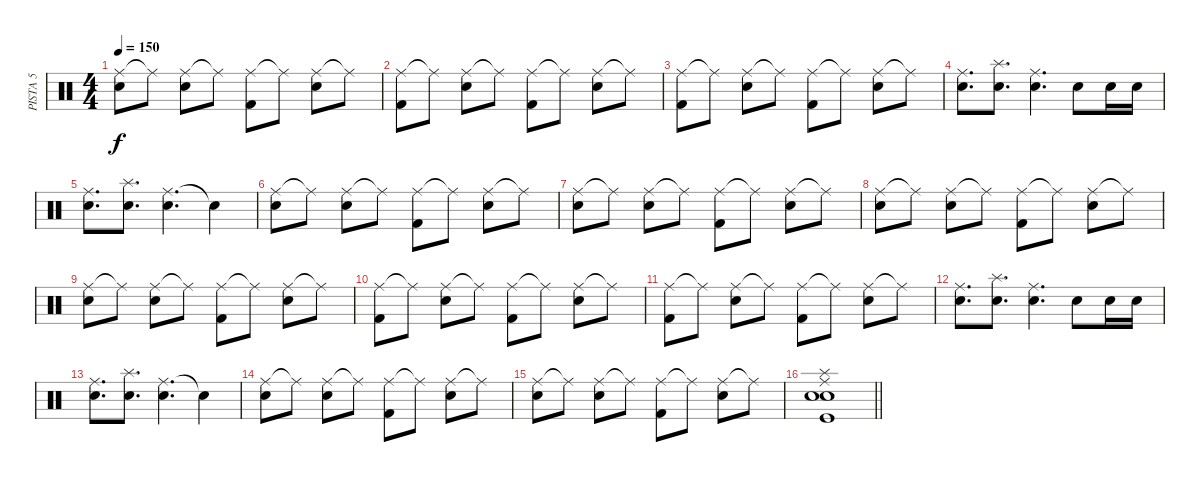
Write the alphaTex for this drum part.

\track ("PISTA 5" "PISTA 5") {instrument percussion}
\staff {score}
\articulation defaults
\ts (4 4)
\tempo 150
\clef neutral
\ks c
("Ride (middle)" "Snare (hit)").8{dy f} "Ride (middle)"{t}.8 ("Ride (middle)" "Electric Snare (hit)").8 "Ride (middle)"{t}.8 ("Ride (middle)" "Kick (hit) 2").8 "Ride (middle)"{t}.8 ("Ride (middle)" "Electric Snare (hit)").8 "Ride (middle)"{t}.8 |
("Ride (middle)" "Kick (hit) 2").8 "Ride (middle)"{t}.8 ("Ride (middle)" "Electric Snare (hit)").8 "Ride (middle)"{t}.8 ("Ride (middle)" "Kick (hit) 2").8 "Ride (middle)"{t}.8 ("Ride (middle)" "Electric Snare (hit)").8 "Ride (middle)"{t}.8 |
("Ride (middle)" "Kick (hit) 2").8 "Ride (middle)"{t}.8 ("Ride (middle)" "Electric Snare (hit)").8 "Ride (middle)"{t}.8 ("Ride (middle)" "Kick (hit) 2").8 "Ride (middle)"{t}.8 ("Ride (middle)" "Electric Snare (hit)").8 "Ride (middle)"{t}.8 |
("Ride (middle)" "Electric Snare (hit)").8{d} ("Splash (hit)" "Electric Snare (hit)").8{d} ("Ride (middle)" "Electric Snare (hit)").4{d} "Electric Snare (hit)".8 "Electric Snare (hit)".16 "Electric Snare (hit)".16 |
("Ride (middle)" "Electric Snare (hit)").8{d} ("Splash (hit)" "Electric Snare (hit)").8{d} ("Ride (middle)" "Electric Snare (hit)").4{d} "Snare (hit)"{t}.4 |
("Ride (middle)" "Snare (hit)").8 "Ride (middle)"{t}.8 ("Ride (middle)" "Electric Snare (hit)").8 "Ride (middle)"{t}.8 ("Ride (middle)" "Kick (hit) 2").8 "Ride (middle)"{t}.8 ("Ride (middle)" "Electric Snare (hit)").8 "Ride (middle)"{t}.8 |
("Ride (middle)" "Snare (hit)").8 "Ride (middle)"{t}.8 ("Ride (middle)" "Electric Snare (hit)").8 "Ride (middle)"{t}.8 ("Ride (middle)" "Kick (hit) 2").8 "Ride (middle)"{t}.8 ("Ride (middle)" "Electric Snare (hit)").8 "Ride (middle)"{t}.8 |
("Ride (middle)" "Snare (hit)").8 "Ride (middle)"{t}.8 ("Ride (middle)" "Electric Snare (hit)").8 "Ride (middle)"{t}.8 ("Ride (middle)" "Kick (hit) 2").8 "Ride (middle)"{t}.8 ("Ride (middle)" "Electric Snare (hit)").8 "Ride (middle)"{t}.8 |
("Ride (middle)" "Snare (hit)").8 "Ride (middle)"{t}.8 ("Ride (middle)" "Electric Snare (hit)").8 "Ride (middle)"{t}.8 ("Ride (middle)" "Kick (hit) 2").8 "Ride (middle)"{t}.8 ("Ride (middle)" "Electric Snare (hit)").8 "Ride (middle)"{t}.8 |
("Ride (middle)" "Kick (hit) 2").8 "Ride (middle)"{t}.8 ("Ride (middle)" "Electric Snare (hit)").8 "Ride (middle)"{t}.8 ("Ride (middle)" "Kick (hit) 2").8 "Ride (middle)"{t}.8 ("Ride (middle)" "Electric Snare (hit)").8 "Ride (middle)"{t}.8 |
("Ride (middle)" "Kick (hit) 2").8 "Ride (middle)"{t}.8 ("Ride (middle)" "Electric Snare (hit)").8 "Ride (middle)"{t}.8 ("Ride (middle)" "Kick (hit) 2").8 "Ride (middle)"{t}.8 ("Ride (middle)" "Electric Snare (hit)").8 "Ride (middle)"{t}.8 |
("Ride (middle)" "Electric Snare (hit)").8{d} ("Splash (hit)" "Electric Snare (hit)").8{d} ("Ride (middle)" "Electric Snare (hit)").4{d} "Electric Snare (hit)".8 "Electric Snare (hit)".16 "Electric Snare (hit)".16 |
("Ride (middle)" "Electric Snare (hit)").8{d} ("Splash (hit)" "Electric Snare (hit)").8{d} ("Ride (middle)" "Electric Snare (hit)").4{d} "Snare (hit)"{t}.4 |
("Ride (middle)" "Snare (hit)").8 "Ride (middle)"{t}.8 ("Ride (middle)" "Electric Snare (hit)").8 "Ride (middle)"{t}.8 ("Ride (middle)" "Kick (hit) 2").8 "Ride (middle)"{t}.8 ("Ride (middle)" "Electric Snare (hit)").8 "Ride (middle)"{t}.8 |
("Ride (middle)" "Snare (hit)").8 "Ride (middle)"{t}.8 ("Ride (middle)" "Electric Snare (hit)").8 "Ride (middle)"{t}.8 ("Ride (middle)" "Kick (hit) 2").8 "Ride (middle)"{t}.8 ("Ride (middle)" "Electric Snare (hit)").8 "Ride (middle)"{t}.8 |
\barLineRight lightlight
("Ride (middle)" "Snare (hit) 2" "Kick (hit)" "Electric Snare (hit)" "Splash (hit)").1
